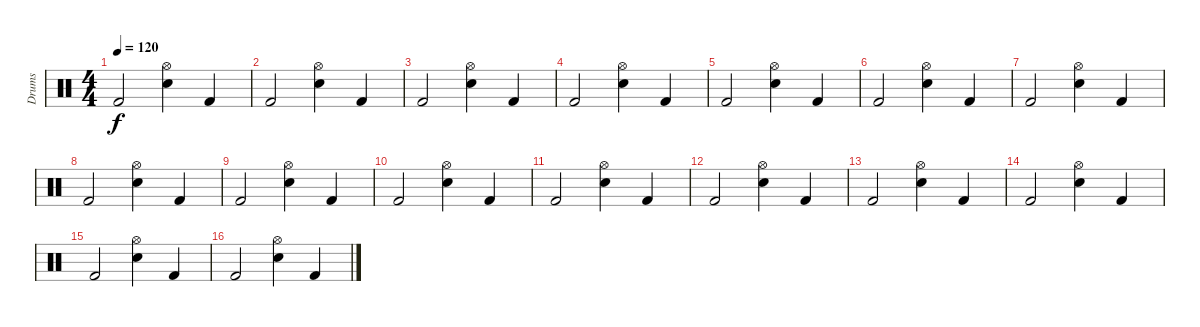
\track ("Drums" "Drums") {instrument percussion}
\staff {score}
\articulation defaults
\ts (4 4)
\tempo 120
\clef neutral
\ks c "Kick (hit) 2".2{dy f}
("Hi-Hat (open)" "Electric Snare (hit)").4 "Kick (hit) 2".4 |
"Kick (hit) 2".2 ("Hi-Hat (open)" "Electric Snare (hit)").4 "Kick (hit) 2".4 |
"Kick (hit) 2".2 ("Hi-Hat (open)" "Electric Snare (hit)").4 "Kick (hit) 2".4 |
"Kick (hit) 2".2 ("Hi-Hat (open)" "Electric Snare (hit)").4 "Kick (hit) 2".4 |
"Kick (hit) 2".2 ("Hi-Hat (open)" "Electric Snare (hit)").4 "Kick (hit) 2".4 |
"Kick (hit) 2".2 ("Hi-Hat (open)" "Electric Snare (hit)").4 "Kick (hit) 2".4 |
"Kick (hit) 2".2 ("Hi-Hat (open)" "Electric Snare (hit)").4 "Kick (hit) 2".4 |
"Kick (hit) 2".2 ("Hi-Hat (open)" "Electric Snare (hit)").4 "Kick (hit) 2".4 |
"Kick (hit) 2".2 ("Hi-Hat (open)" "Electric Snare (hit)").4 "Kick (hit) 2".4 |
"Kick (hit) 2".2 ("Hi-Hat (open)" "Electric Snare (hit)").4 "Kick (hit) 2".4 |
"Kick (hit) 2".2 ("Hi-Hat (open)" "Electric Snare (hit)").4 "Kick (hit) 2".4 |
"Kick (hit) 2".2 ("Hi-Hat (open)" "Electric Snare (hit)").4 "Kick (hit) 2".4 |
"Kick (hit) 2".2 ("Hi-Hat (open)" "Electric Snare (hit)").4 "Kick (hit) 2".4 |
"Kick (hit) 2".2 ("Hi-Hat (open)" "Electric Snare (hit)").4 "Kick (hit) 2".4 |
"Kick (hit) 2".2 ("Hi-Hat (open)" "Electric Snare (hit)").4 "Kick (hit) 2".4 |
"Kick (hit) 2".2 ("Hi-Hat (open)" "Electric Snare (hit)").4 "Kick (hit) 2".4
